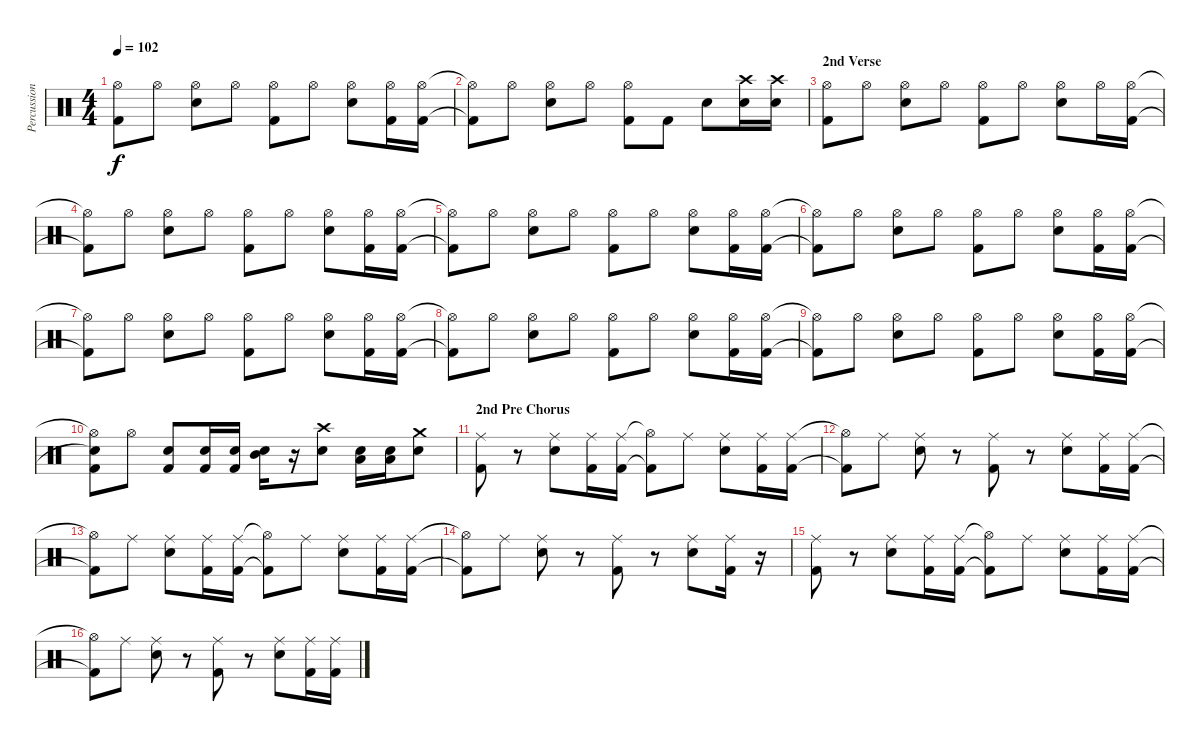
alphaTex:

\track ("Percussion" "Percussion") {instrument percussion}
\staff {score}
\articulation defaults
\ts (4 4)
\tempo 102
\clef neutral
\ks c
("Hi-Hat (open)"{t} "Kick (hit) 2"{t}).8{dy f} "Hi-Hat (open)".8 ("Hi-Hat (open)" "Snare (hit) 2").8 "Hi-Hat (open)".8 ("Hi-Hat (open)" "Kick (hit) 2").8 "Hi-Hat (open)".8 ("Hi-Hat (open)" "Snare (hit) 2").8 ("Hi-Hat (open)" "Kick (hit) 2").16 ("Hi-Hat (open)" "Kick (hit) 2").16 |
("Hi-Hat (open)"{t} "Kick (hit) 2"{t}).8 "Hi-Hat (open)".8 ("Hi-Hat (open)" "Snare (hit) 2").8 "Hi-Hat (open)".8 ("Hi-Hat (open)" "Kick (hit) 2").8 "Kick (hit) 2".8 "Snare (hit) 2".8 ("Crash high (hit)" "Snare (hit) 2").16 ("Crash high (hit)" "Snare (hit) 2").16 |
\section ("" "2nd Verse")
("Hi-Hat (open)" "Kick (hit) 2").8 "Hi-Hat (open)".8 ("Hi-Hat (open)" "Snare (hit) 2").8 "Hi-Hat (open)".8 ("Hi-Hat (open)" "Kick (hit) 2").8 "Hi-Hat (open)".8 ("Hi-Hat (open)" "Snare (hit) 2").8 "Hi-Hat (open)".16 ("Hi-Hat (open)" "Kick (hit) 2").16 |
("Hi-Hat (open)"{t} "Kick (hit) 2"{t}).8 "Hi-Hat (open)".8 ("Hi-Hat (open)" "Snare (hit) 2").8 "Hi-Hat (open)".8 ("Hi-Hat (open)" "Kick (hit) 2").8 "Hi-Hat (open)".8 ("Hi-Hat (open)" "Snare (hit) 2").8 ("Hi-Hat (open)" "Kick (hit) 2").16 ("Hi-Hat (open)" "Kick (hit) 2").16 |
("Hi-Hat (open)"{t} "Kick (hit) 2"{t}).8 "Hi-Hat (open)".8 ("Hi-Hat (open)" "Snare (hit) 2").8 "Hi-Hat (open)".8 ("Hi-Hat (open)" "Kick (hit) 2").8 "Hi-Hat (open)".8 ("Hi-Hat (open)" "Snare (hit) 2").8 ("Hi-Hat (open)" "Kick (hit) 2").16 ("Hi-Hat (open)" "Kick (hit) 2").16 |
("Hi-Hat (open)"{t} "Kick (hit) 2"{t}).8 "Hi-Hat (open)".8 ("Hi-Hat (open)" "Snare (hit) 2").8 "Hi-Hat (open)".8 ("Hi-Hat (open)" "Kick (hit) 2").8 "Hi-Hat (open)".8 ("Hi-Hat (open)" "Snare (hit) 2").8 ("Hi-Hat (open)" "Kick (hit) 2").16 ("Hi-Hat (open)" "Kick (hit) 2").16 |
("Hi-Hat (open)"{t} "Kick (hit) 2"{t}).8 "Hi-Hat (open)".8 ("Hi-Hat (open)" "Snare (hit) 2").8 "Hi-Hat (open)".8 ("Hi-Hat (open)" "Kick (hit) 2").8 "Hi-Hat (open)".8 ("Hi-Hat (open)" "Snare (hit) 2").8 ("Hi-Hat (open)" "Kick (hit) 2").16 ("Hi-Hat (open)" "Kick (hit) 2").16 |
("Hi-Hat (open)"{t} "Kick (hit) 2"{t}).8 "Hi-Hat (open)".8 ("Hi-Hat (open)" "Snare (hit) 2").8 "Hi-Hat (open)".8 ("Hi-Hat (open)" "Kick (hit) 2").8 "Hi-Hat (open)".8 ("Hi-Hat (open)" "Snare (hit) 2").8 ("Hi-Hat (open)" "Kick (hit) 2").16 ("Hi-Hat (open)" "Kick (hit) 2").16 |
("Hi-Hat (open)"{t} "Kick (hit) 2"{t}).8 "Hi-Hat (open)".8 ("Hi-Hat (open)" "Snare (hit) 2").8 "Hi-Hat (open)".8 ("Hi-Hat (open)" "Kick (hit) 2").8 "Hi-Hat (open)".8 ("Hi-Hat (open)" "Snare (hit) 2").8 ("Hi-Hat (open)" "Kick (hit) 2").16 ("Hi-Hat (open)" "Kick (hit) 2").16 |
("Hi-Hat (open)"{t} "Snare (hit) 2"{t} "Kick (hit) 2").8 "Hi-Hat (open)".8 ("Snare (hit) 2" "Kick (hit) 2").8 ("Snare (hit) 2" "Kick (hit) 2").16 ("Snare (hit) 2" "Kick (hit) 2").16 ("Mid Tom (hit)" "Snare (hit) 2").16 r.16 ("Crash high (hit)" "Snare (hit) 2").8 ("Low Tom (hit)" "Snare (hit) 2").16 ("Low Tom (hit)" "Snare (hit) 2").16 ("Crash medium (hit)" "Snare (hit) 2").8 |
\section ("" "2nd Pre Chorus")
("Ride (middle)" "Kick (hit) 2").8 r.8 ("Ride (middle)" "Snare (hit) 2").8 ("Ride (middle)" "Kick (hit) 2").16 ("Ride (middle)" "Kick (hit) 2").16 ("Hi-Hat (open)"{t} "Kick (hit) 2"{t}).8 "Ride (middle)".8 ("Ride (middle)" "Snare (hit) 2").8 ("Ride (middle)" "Kick (hit) 2").16 ("Ride (middle)" "Kick (hit) 2").16 |
("Hi-Hat (open)"{t} "Kick (hit) 2"{t}).8 "Ride (middle)".8 ("Ride (middle)" "Snare (hit) 2").8 r.8 ("Ride (middle)" "Kick (hit) 2").8 r.8 ("Ride (middle)" "Snare (hit) 2").8 ("Ride (middle)" "Kick (hit) 2").16 ("Ride (middle)" "Kick (hit) 2").16 |
("Hi-Hat (open)"{t} "Kick (hit) 2"{t}).8 "Ride (middle)".8 ("Ride (middle)" "Snare (hit) 2").8 ("Ride (middle)" "Kick (hit) 2").16 ("Ride (middle)" "Kick (hit) 2").16 ("Hi-Hat (open)"{t} "Kick (hit) 2"{t}).8 "Ride (middle)".8 ("Ride (middle)" "Snare (hit) 2").8 ("Ride (middle)" "Kick (hit) 2").16 ("Ride (middle)" "Kick (hit) 2").16 |
("Hi-Hat (open)"{t} "Kick (hit) 2"{t}).8 "Ride (middle)".8 ("Ride (middle)" "Snare (hit) 2").8 r.8 ("Ride (middle)" "Kick (hit) 2").8 r.8 ("Ride (middle)" "Snare (hit) 2").8 ("Ride (middle)" "Kick (hit) 2").16 r.16 |
("Ride (middle)" "Kick (hit) 2").8 r.8 ("Ride (middle)" "Snare (hit) 2").8 ("Ride (middle)" "Kick (hit) 2").16 ("Ride (middle)" "Kick (hit) 2").16 ("Hi-Hat (open)"{t} "Kick (hit) 2"{t}).8 "Ride (middle)".8 ("Ride (middle)" "Snare (hit) 2").8 ("Ride (middle)" "Kick (hit) 2").16 ("Ride (middle)" "Kick (hit) 2").16 |
("Hi-Hat (open)"{t} "Kick (hit) 2"{t}).8 "Ride (middle)".8 ("Ride (middle)" "Snare (hit) 2").8 r.8 ("Ride (middle)" "Kick (hit) 2").8 r.8 ("Ride (middle)" "Snare (hit) 2").8 ("Ride (middle)" "Kick (hit) 2").16 ("Ride (middle)" "Kick (hit) 2").16
